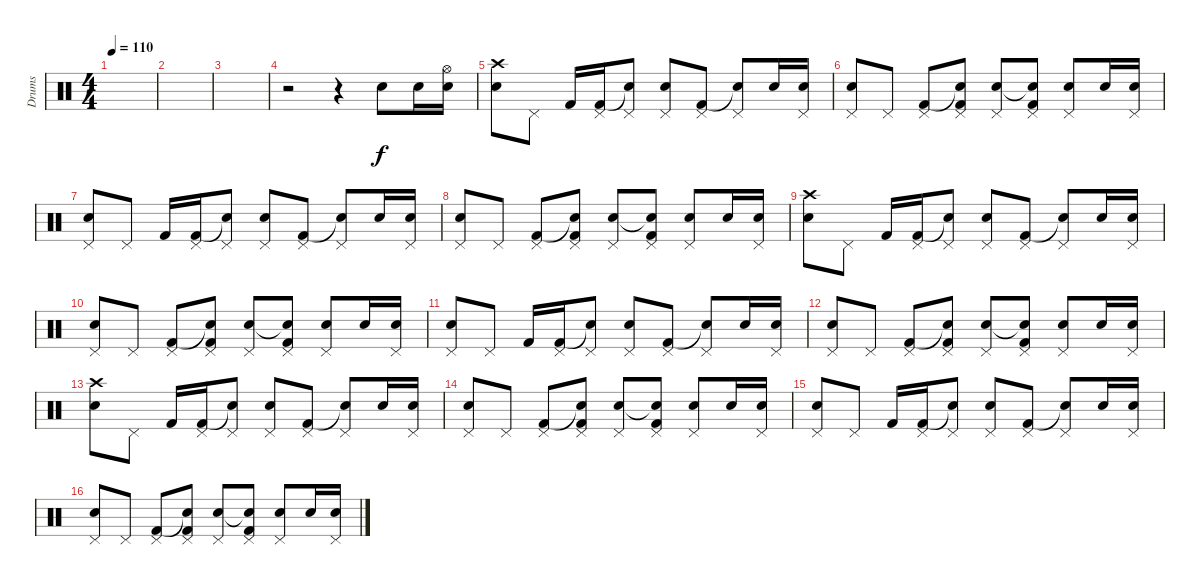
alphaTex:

\track ("Drums" "Drums") {instrument percussion}
\staff {score}
\articulation defaults
\ts (4 4)
\tempo 110
\clef neutral
\ks c
|
|
|
r.2 r.4 "Snare (hit) 2".8 "Snare (hit) 2".16 ("Snare (hit) 2" "Hi-Hat (open)").16 |
("Snare (hit) 2" "Crash high (hit)").8 "Pedal Hi-Hat (hit)".8 "Kick (hit) 2".16 ("Pedal Hi-Hat (hit)" "Kick (hit) 2").16 ("Pedal Hi-Hat (hit)" "Snare (hit)"{t}).8 ("Pedal Hi-Hat (hit)" "Snare (hit) 2").8 ("Pedal Hi-Hat (hit)" "Kick (hit) 2").8 ("Pedal Hi-Hat (hit)" "Snare (hit)"{t}).8 "Snare (hit) 2".16 ("Pedal Hi-Hat (hit)" "Snare (hit) 2").16 |
("Pedal Hi-Hat (hit)" "Snare (hit) 2").8 "Pedal Hi-Hat (hit)".8 ("Pedal Hi-Hat (hit)" "Kick (hit) 2").8 ("Pedal Hi-Hat (hit)" "Snare (hit)"{t} "Kick (hit) 2").8 ("Pedal Hi-Hat (hit)" "Snare (hit) 2").8 ("Pedal Hi-Hat (hit)" "Snare (hit)"{t} "Kick (hit) 2").8 ("Pedal Hi-Hat (hit)" "Snare (hit) 2").8 "Snare (hit) 2".16 ("Pedal Hi-Hat (hit)" "Snare (hit) 2").16 |
("Pedal Hi-Hat (hit)" "Snare (hit) 2").8 "Pedal Hi-Hat (hit)".8 "Kick (hit) 2".16 ("Pedal Hi-Hat (hit)" "Kick (hit) 2").16 ("Pedal Hi-Hat (hit)" "Snare (hit)"{t}).8 ("Pedal Hi-Hat (hit)" "Snare (hit) 2").8 ("Pedal Hi-Hat (hit)" "Kick (hit) 2").8 ("Pedal Hi-Hat (hit)" "Snare (hit)"{t}).8 "Snare (hit) 2".16 ("Pedal Hi-Hat (hit)" "Snare (hit) 2").16 |
("Pedal Hi-Hat (hit)" "Snare (hit) 2").8 "Pedal Hi-Hat (hit)".8 ("Pedal Hi-Hat (hit)" "Kick (hit) 2").8 ("Pedal Hi-Hat (hit)" "Snare (hit)"{t} "Kick (hit) 2").8 ("Pedal Hi-Hat (hit)" "Snare (hit) 2").8 ("Pedal Hi-Hat (hit)" "Snare (hit)"{t} "Kick (hit) 2").8 ("Pedal Hi-Hat (hit)" "Snare (hit) 2").8 "Snare (hit) 2".16 ("Pedal Hi-Hat (hit)" "Snare (hit) 2").16 |
("Snare (hit) 2" "Crash high (hit)").8 "Pedal Hi-Hat (hit)".8 "Kick (hit) 2".16 ("Pedal Hi-Hat (hit)" "Kick (hit) 2").16 ("Pedal Hi-Hat (hit)" "Snare (hit)"{t}).8 ("Pedal Hi-Hat (hit)" "Snare (hit) 2").8 ("Pedal Hi-Hat (hit)" "Kick (hit) 2").8 ("Pedal Hi-Hat (hit)" "Snare (hit)"{t}).8 "Snare (hit) 2".16 ("Pedal Hi-Hat (hit)" "Snare (hit) 2").16 |
("Pedal Hi-Hat (hit)" "Snare (hit) 2").8 "Pedal Hi-Hat (hit)".8 ("Pedal Hi-Hat (hit)" "Kick (hit) 2").8 ("Pedal Hi-Hat (hit)" "Snare (hit)"{t} "Kick (hit) 2").8 ("Pedal Hi-Hat (hit)" "Snare (hit) 2").8 ("Pedal Hi-Hat (hit)" "Snare (hit)"{t} "Kick (hit) 2").8 ("Pedal Hi-Hat (hit)" "Snare (hit) 2").8 "Snare (hit) 2".16 ("Pedal Hi-Hat (hit)" "Snare (hit) 2").16 |
("Pedal Hi-Hat (hit)" "Snare (hit) 2").8 "Pedal Hi-Hat (hit)".8 "Kick (hit) 2".16 ("Pedal Hi-Hat (hit)" "Kick (hit) 2").16 ("Pedal Hi-Hat (hit)" "Snare (hit)"{t}).8 ("Pedal Hi-Hat (hit)" "Snare (hit) 2").8 ("Pedal Hi-Hat (hit)" "Kick (hit) 2").8 ("Pedal Hi-Hat (hit)" "Snare (hit)"{t}).8 "Snare (hit) 2".16 ("Pedal Hi-Hat (hit)" "Snare (hit) 2").16 |
("Pedal Hi-Hat (hit)" "Snare (hit) 2").8 "Pedal Hi-Hat (hit)".8 ("Pedal Hi-Hat (hit)" "Kick (hit) 2").8 ("Pedal Hi-Hat (hit)" "Snare (hit)"{t} "Kick (hit) 2").8 ("Pedal Hi-Hat (hit)" "Snare (hit) 2").8 ("Pedal Hi-Hat (hit)" "Snare (hit)"{t} "Kick (hit) 2").8 ("Pedal Hi-Hat (hit)" "Snare (hit) 2").8 "Snare (hit) 2".16 ("Pedal Hi-Hat (hit)" "Snare (hit) 2").16 |
("Snare (hit) 2" "Crash high (hit)").8 "Pedal Hi-Hat (hit)".8 "Kick (hit) 2".16 ("Pedal Hi-Hat (hit)" "Kick (hit) 2").16 ("Pedal Hi-Hat (hit)" "Snare (hit)"{t}).8 ("Pedal Hi-Hat (hit)" "Snare (hit) 2").8 ("Pedal Hi-Hat (hit)" "Kick (hit) 2").8 ("Pedal Hi-Hat (hit)" "Snare (hit)"{t}).8 "Snare (hit) 2".16 ("Pedal Hi-Hat (hit)" "Snare (hit) 2").16 |
("Pedal Hi-Hat (hit)" "Snare (hit) 2").8 "Pedal Hi-Hat (hit)".8 ("Pedal Hi-Hat (hit)" "Kick (hit) 2").8 ("Pedal Hi-Hat (hit)" "Snare (hit)"{t} "Kick (hit) 2").8 ("Pedal Hi-Hat (hit)" "Snare (hit) 2").8 ("Pedal Hi-Hat (hit)" "Snare (hit)"{t} "Kick (hit) 2").8 ("Pedal Hi-Hat (hit)" "Snare (hit) 2").8 "Snare (hit) 2".16 ("Pedal Hi-Hat (hit)" "Snare (hit) 2").16 |
("Pedal Hi-Hat (hit)" "Snare (hit) 2").8 "Pedal Hi-Hat (hit)".8 "Kick (hit) 2".16 ("Pedal Hi-Hat (hit)" "Kick (hit) 2").16 ("Pedal Hi-Hat (hit)" "Snare (hit)"{t}).8 ("Pedal Hi-Hat (hit)" "Snare (hit) 2").8 ("Pedal Hi-Hat (hit)" "Kick (hit) 2").8 ("Pedal Hi-Hat (hit)" "Snare (hit)"{t}).8 "Snare (hit) 2".16 ("Pedal Hi-Hat (hit)" "Snare (hit) 2").16 |
("Pedal Hi-Hat (hit)" "Snare (hit) 2").8 "Pedal Hi-Hat (hit)".8 ("Pedal Hi-Hat (hit)" "Kick (hit) 2").8 ("Pedal Hi-Hat (hit)" "Snare (hit)"{t} "Kick (hit) 2").8 ("Pedal Hi-Hat (hit)" "Snare (hit) 2").8 ("Pedal Hi-Hat (hit)" "Snare (hit)"{t} "Kick (hit) 2").8 ("Pedal Hi-Hat (hit)" "Snare (hit) 2").8 "Snare (hit) 2".16 ("Pedal Hi-Hat (hit)" "Snare (hit) 2").16
